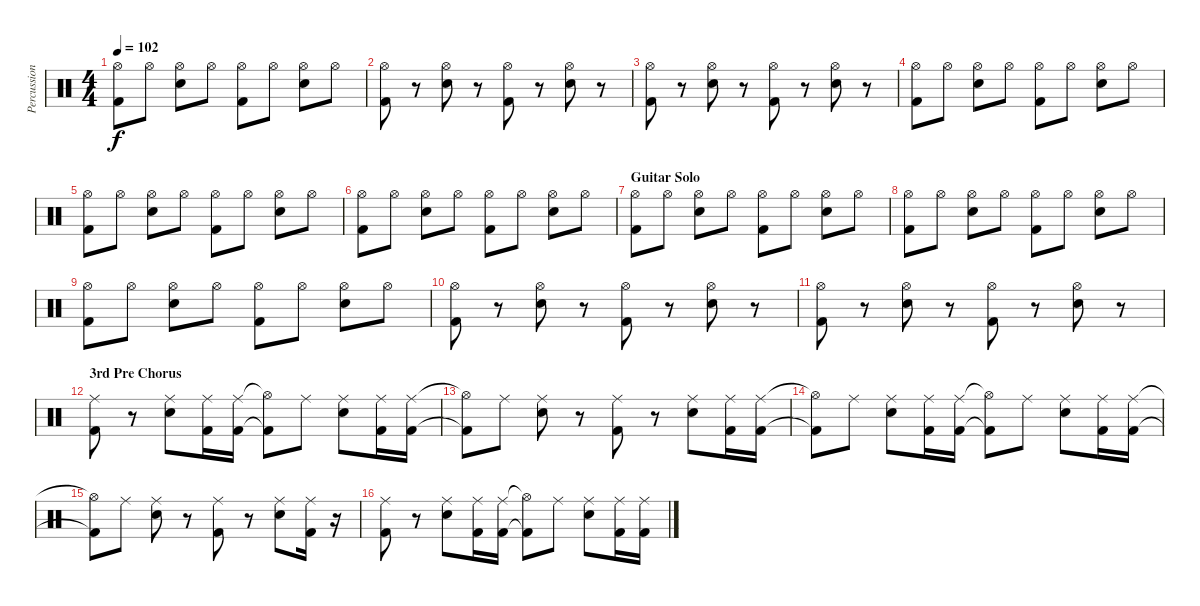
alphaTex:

\track ("Percussion" "Percussion") {instrument percussion}
\staff {score}
\articulation defaults
\ts (4 4)
\tempo 102
\clef neutral
\ks c
("Hi-Hat (open)" "Kick (hit) 2").8{dy f} "Hi-Hat (open)".8 ("Hi-Hat (open)" "Snare (hit) 2").8 "Hi-Hat (open)".8 ("Hi-Hat (open)" "Kick (hit) 2").8 "Hi-Hat (open)".8 ("Hi-Hat (open)" "Snare (hit) 2").8 "Hi-Hat (open)".8 |
("Hi-Hat (open)" "Kick (hit) 2").8 r.8 ("Hi-Hat (open)" "Snare (hit) 2").8 r.8 ("Hi-Hat (open)" "Kick (hit) 2").8 r.8 ("Hi-Hat (open)" "Snare (hit) 2").8 r.8 |
("Hi-Hat (open)" "Kick (hit) 2").8 r.8 ("Hi-Hat (open)" "Snare (hit) 2").8 r.8 ("Hi-Hat (open)" "Kick (hit) 2").8 r.8 ("Hi-Hat (open)" "Snare (hit) 2").8 r.8 |
("Hi-Hat (open)" "Kick (hit) 2").8 "Hi-Hat (open)".8 ("Hi-Hat (open)" "Snare (hit) 2").8 "Hi-Hat (open)".8 ("Hi-Hat (open)" "Kick (hit) 2").8 "Hi-Hat (open)".8 ("Hi-Hat (open)" "Snare (hit) 2").8 "Hi-Hat (open)".8 |
("Hi-Hat (open)" "Kick (hit) 2").8 "Hi-Hat (open)".8 ("Hi-Hat (open)" "Snare (hit) 2").8 "Hi-Hat (open)".8 ("Hi-Hat (open)" "Kick (hit) 2").8 "Hi-Hat (open)".8 ("Hi-Hat (open)" "Snare (hit) 2").8 "Hi-Hat (open)".8 |
("Hi-Hat (open)" "Kick (hit) 2").8 "Hi-Hat (open)".8 ("Hi-Hat (open)" "Snare (hit) 2").8 "Hi-Hat (open)".8 ("Hi-Hat (open)" "Kick (hit) 2").8 "Hi-Hat (open)".8 ("Hi-Hat (open)" "Snare (hit) 2").8 "Hi-Hat (open)".8 |
\section ("" "Guitar Solo")
("Hi-Hat (open)" "Kick (hit) 2").8 "Hi-Hat (open)".8 ("Hi-Hat (open)" "Snare (hit) 2").8 "Hi-Hat (open)".8 ("Hi-Hat (open)" "Kick (hit) 2").8 "Hi-Hat (open)".8 ("Hi-Hat (open)" "Snare (hit) 2").8 "Hi-Hat (open)".8 |
("Hi-Hat (open)" "Kick (hit) 2").8 "Hi-Hat (open)".8 ("Hi-Hat (open)" "Snare (hit) 2").8 "Hi-Hat (open)".8 ("Hi-Hat (open)" "Kick (hit) 2").8 "Hi-Hat (open)".8 ("Hi-Hat (open)" "Snare (hit) 2").8 "Hi-Hat (open)".8 |
("Hi-Hat (open)" "Kick (hit) 2").8 "Hi-Hat (open)".8 ("Hi-Hat (open)" "Snare (hit) 2").8 "Hi-Hat (open)".8 ("Hi-Hat (open)" "Kick (hit) 2").8 "Hi-Hat (open)".8 ("Hi-Hat (open)" "Snare (hit) 2").8 "Hi-Hat (open)".8 |
("Hi-Hat (open)" "Kick (hit) 2").8 r.8 ("Hi-Hat (open)" "Snare (hit) 2").8 r.8 ("Hi-Hat (open)" "Kick (hit) 2").8 r.8 ("Hi-Hat (open)" "Snare (hit) 2").8 r.8 |
("Hi-Hat (open)" "Kick (hit) 2").8 r.8 ("Hi-Hat (open)" "Snare (hit) 2").8 r.8 ("Hi-Hat (open)" "Kick (hit) 2").8 r.8 ("Hi-Hat (open)" "Snare (hit) 2").8 r.8 |
\section ("" "3rd Pre Chorus")
("Ride (middle)" "Kick (hit) 2").8 r.8 ("Ride (middle)" "Snare (hit) 2").8 ("Ride (middle)" "Kick (hit) 2").16 ("Ride (middle)" "Kick (hit) 2").16 ("Hi-Hat (open)"{t} "Kick (hit) 2"{t}).8 "Ride (middle)".8 ("Ride (middle)" "Snare (hit) 2").8 ("Ride (middle)" "Kick (hit) 2").16 ("Ride (middle)" "Kick (hit) 2").16 |
("Hi-Hat (open)"{t} "Kick (hit) 2"{t}).8 "Ride (middle)".8 ("Ride (middle)" "Snare (hit) 2").8 r.8 ("Ride (middle)" "Kick (hit) 2").8 r.8 ("Ride (middle)" "Snare (hit) 2").8 ("Ride (middle)" "Kick (hit) 2").16 ("Ride (middle)" "Kick (hit) 2").16 |
("Hi-Hat (open)"{t} "Kick (hit) 2"{t}).8 "Ride (middle)".8 ("Ride (middle)" "Snare (hit) 2").8 ("Ride (middle)" "Kick (hit) 2").16 ("Ride (middle)" "Kick (hit) 2").16 ("Hi-Hat (open)"{t} "Kick (hit) 2"{t}).8 "Ride (middle)".8 ("Ride (middle)" "Snare (hit) 2").8 ("Ride (middle)" "Kick (hit) 2").16 ("Ride (middle)" "Kick (hit) 2").16 |
("Hi-Hat (open)"{t} "Kick (hit) 2"{t}).8 "Ride (middle)".8 ("Ride (middle)" "Snare (hit) 2").8 r.8 ("Ride (middle)" "Kick (hit) 2").8 r.8 ("Ride (middle)" "Snare (hit) 2").8 ("Ride (middle)" "Kick (hit) 2").16 r.16 |
("Ride (middle)" "Kick (hit) 2").8 r.8 ("Ride (middle)" "Snare (hit) 2").8 ("Ride (middle)" "Kick (hit) 2").16 ("Ride (middle)" "Kick (hit) 2").16 ("Hi-Hat (open)"{t} "Kick (hit) 2"{t}).8 "Ride (middle)".8 ("Ride (middle)" "Snare (hit) 2").8 ("Ride (middle)" "Kick (hit) 2").16 ("Ride (middle)" "Kick (hit) 2").16
